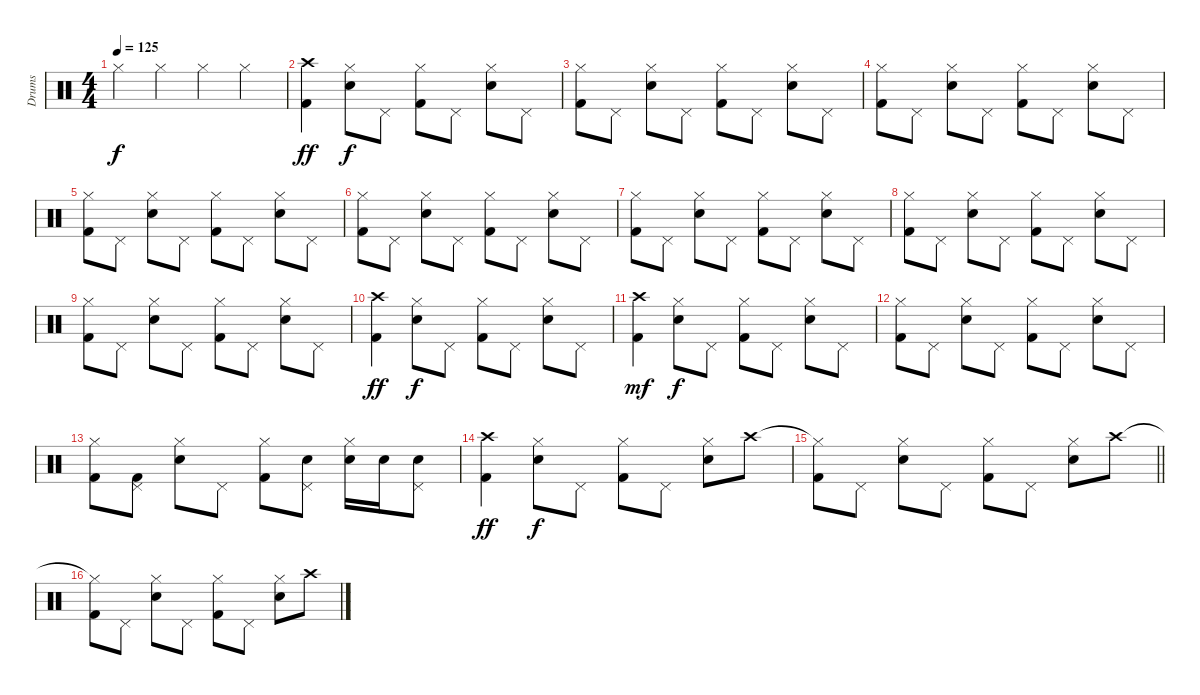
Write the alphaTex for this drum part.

\track ("Drums" "Drums") {instrument percussion}
\staff {score}
\articulation defaults
\ts (4 4)
\tempo 125
\clef neutral
\ks c "Hi-Hat (closed)".4{dy f} "Hi-Hat (closed)".4 "Hi-Hat (closed)".4 "Hi-Hat (closed)".4
|
("Crash high (hit)" "Kick (hit) 2").4{dy ff} ("Hi-Hat (closed)" "Electric Snare (hit)").8{dy f} "Pedal Hi-Hat (hit)".8 ("Hi-Hat (closed)" "Kick (hit) 2").8 "Pedal Hi-Hat (hit)".8 ("Hi-Hat (closed)" "Electric Snare (hit)").8 "Pedal Hi-Hat (hit)".8 |
("Hi-Hat (closed)" "Kick (hit) 2").8 "Pedal Hi-Hat (hit)".8 ("Hi-Hat (closed)" "Electric Snare (hit)").8 "Pedal Hi-Hat (hit)".8 ("Hi-Hat (closed)" "Kick (hit) 2").8 "Pedal Hi-Hat (hit)".8 ("Hi-Hat (closed)" "Electric Snare (hit)").8 "Pedal Hi-Hat (hit)".8 |
("Hi-Hat (closed)" "Kick (hit) 2").8 "Pedal Hi-Hat (hit)".8 ("Hi-Hat (closed)" "Electric Snare (hit)").8 "Pedal Hi-Hat (hit)".8 ("Hi-Hat (closed)" "Kick (hit) 2").8 "Pedal Hi-Hat (hit)".8 ("Hi-Hat (closed)" "Electric Snare (hit)").8 "Pedal Hi-Hat (hit)".8 |
("Hi-Hat (closed)" "Kick (hit) 2").8 "Pedal Hi-Hat (hit)".8 ("Hi-Hat (closed)" "Electric Snare (hit)").8 "Pedal Hi-Hat (hit)".8 ("Hi-Hat (closed)" "Kick (hit) 2").8 "Pedal Hi-Hat (hit)".8 ("Hi-Hat (closed)" "Electric Snare (hit)").8 "Pedal Hi-Hat (hit)".8 |
("Hi-Hat (closed)" "Kick (hit) 2").8 "Pedal Hi-Hat (hit)".8 ("Hi-Hat (closed)" "Electric Snare (hit)").8 "Pedal Hi-Hat (hit)".8 ("Hi-Hat (closed)" "Kick (hit) 2").8 "Pedal Hi-Hat (hit)".8 ("Hi-Hat (closed)" "Electric Snare (hit)").8 "Pedal Hi-Hat (hit)".8 |
("Hi-Hat (closed)" "Kick (hit) 2").8 "Pedal Hi-Hat (hit)".8 ("Hi-Hat (closed)" "Electric Snare (hit)").8 "Pedal Hi-Hat (hit)".8 ("Hi-Hat (closed)" "Kick (hit) 2").8 "Pedal Hi-Hat (hit)".8 ("Hi-Hat (closed)" "Electric Snare (hit)").8 "Pedal Hi-Hat (hit)".8 |
("Hi-Hat (closed)" "Kick (hit) 2").8 "Pedal Hi-Hat (hit)".8 ("Hi-Hat (closed)" "Electric Snare (hit)").8 "Pedal Hi-Hat (hit)".8 ("Hi-Hat (closed)" "Kick (hit) 2").8 "Pedal Hi-Hat (hit)".8 ("Hi-Hat (closed)" "Electric Snare (hit)").8 "Pedal Hi-Hat (hit)".8 |
("Hi-Hat (closed)" "Kick (hit) 2").8 "Pedal Hi-Hat (hit)".8 ("Hi-Hat (closed)" "Electric Snare (hit)").8 "Pedal Hi-Hat (hit)".8 ("Hi-Hat (closed)" "Kick (hit) 2").8 "Pedal Hi-Hat (hit)".8 ("Hi-Hat (closed)" "Electric Snare (hit)").8 "Pedal Hi-Hat (hit)".8 |
("Crash high (hit)" "Kick (hit) 2").4{dy ff} ("Hi-Hat (closed)" "Electric Snare (hit)").8{dy f} "Pedal Hi-Hat (hit)".8 ("Hi-Hat (closed)" "Kick (hit) 2").8 "Pedal Hi-Hat (hit)".8 ("Hi-Hat (closed)" "Electric Snare (hit)").8 "Pedal Hi-Hat (hit)".8 |
("Crash high (hit)" "Kick (hit) 2").4{dy mf} ("Hi-Hat (closed)" "Electric Snare (hit)").8{dy f} "Pedal Hi-Hat (hit)".8 ("Hi-Hat (closed)" "Kick (hit) 2").8 "Pedal Hi-Hat (hit)".8 ("Hi-Hat (closed)" "Electric Snare (hit)").8 "Pedal Hi-Hat (hit)".8 |
("Hi-Hat (closed)" "Kick (hit) 2").8 "Pedal Hi-Hat (hit)".8 ("Hi-Hat (closed)" "Electric Snare (hit)").8 "Pedal Hi-Hat (hit)".8 ("Hi-Hat (closed)" "Kick (hit) 2").8 "Pedal Hi-Hat (hit)".8 ("Hi-Hat (closed)" "Electric Snare (hit)").8 "Pedal Hi-Hat (hit)".8 |
("Hi-Hat (closed)" "Kick (hit) 2").8 ("Pedal Hi-Hat (hit)" "Kick (hit) 2").8 ("Hi-Hat (closed)" "Electric Snare (hit)").8 "Pedal Hi-Hat (hit)".8 ("Hi-Hat (closed)" "Kick (hit) 2").8 ("Pedal Hi-Hat (hit)" "Snare (hit) 2").8 ("Hi-Hat (closed)" "Snare (hit) 2").16 "Snare (hit) 2".16 ("Pedal Hi-Hat (hit)" "Snare (hit) 2").8 |
("Crash high (hit)" "Kick (hit) 2").4{dy ff} ("Hi-Hat (closed)" "Electric Snare (hit)").8{dy f} "Pedal Hi-Hat (hit)".8 ("Hi-Hat (closed)" "Kick (hit) 2").8 "Pedal Hi-Hat (hit)".8 ("Hi-Hat (closed)" "Electric Snare (hit)").8 "Crash high (hit)".8 |
\barLineRight lightlight
("Hi-Hat (closed)"{t} "Kick (hit) 2").8 "Pedal Hi-Hat (hit)".8 ("Hi-Hat (closed)" "Electric Snare (hit)").8 "Pedal Hi-Hat (hit)".8 ("Hi-Hat (closed)" "Kick (hit) 2").8 "Pedal Hi-Hat (hit)".8 ("Hi-Hat (closed)" "Electric Snare (hit)").8 "Crash high (hit)".8 |
("Hi-Hat (closed)"{t} "Kick (hit) 2").8 "Pedal Hi-Hat (hit)".8 ("Hi-Hat (closed)" "Electric Snare (hit)").8 "Pedal Hi-Hat (hit)".8 ("Hi-Hat (closed)" "Kick (hit) 2").8 "Pedal Hi-Hat (hit)".8 ("Hi-Hat (closed)" "Electric Snare (hit)").8 "Crash high (hit)".8
